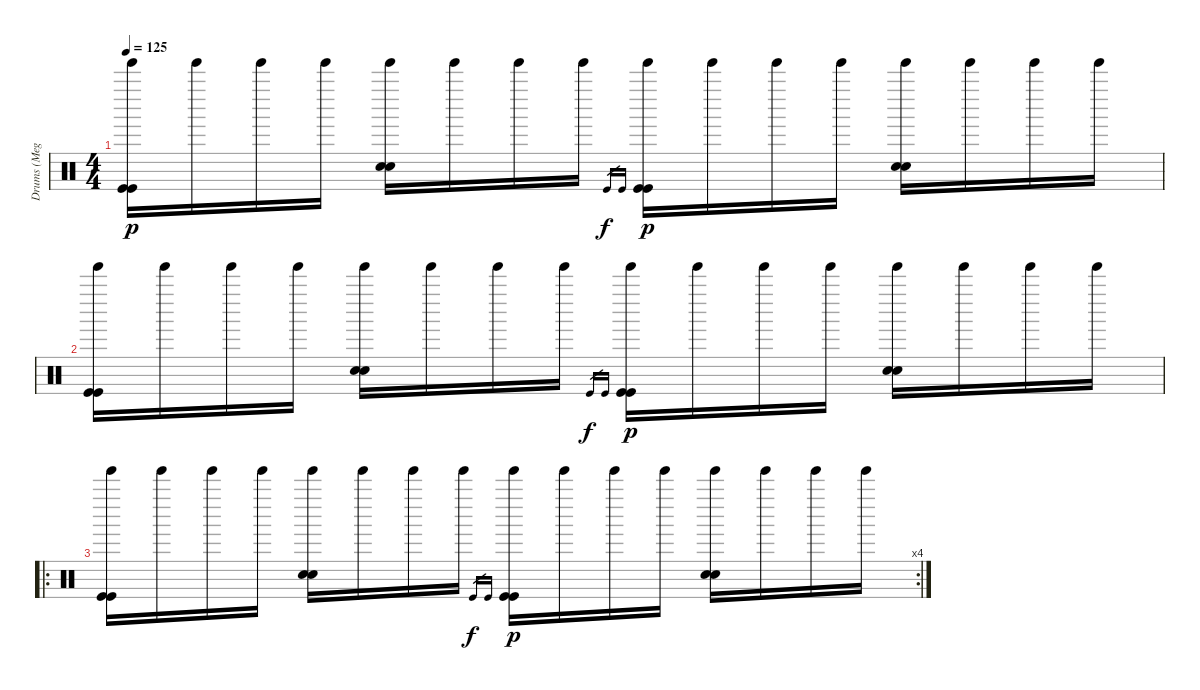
\track ("Drums (Meg)" "Drums (Meg") {instrument percussion}
\staff {score}
\articulation defaults
\ts (4 4)
\tempo 125
\clef neutral
\ks c
("Tinkle Bell (hit)" "Kick (hit)" "Kick (hit)").16{dy p} "Tinkle Bell (hit)".16 "Tinkle Bell (hit)".16 "Tinkle Bell (hit)".16 ("Tinkle Bell (hit)" "Snare (hit) 2" "Snare (hit) 2").16 "Tinkle Bell (hit)".16 "Tinkle Bell (hit)".16 "Tinkle Bell (hit)".16 "Kick (hit)".16{gr dy f} "Kick (hit)".16{gr} ("Tinkle Bell (hit)" "Kick (hit)" "Kick (hit)").16{dy p} "Tinkle Bell (hit)".16 "Tinkle Bell (hit)".16 "Tinkle Bell (hit)".16 ("Tinkle Bell (hit)" "Snare (hit) 2" "Snare (hit) 2").16 "Tinkle Bell (hit)".16 "Tinkle Bell (hit)".16 "Tinkle Bell (hit)".16 |
("Tinkle Bell (hit)" "Kick (hit)" "Kick (hit)").16 "Tinkle Bell (hit)".16 "Tinkle Bell (hit)".16 "Tinkle Bell (hit)".16 ("Tinkle Bell (hit)" "Snare (hit) 2" "Snare (hit) 2").16 "Tinkle Bell (hit)".16 "Tinkle Bell (hit)".16 "Tinkle Bell (hit)".16 "Kick (hit)".16{gr dy f} "Kick (hit)".16{gr} ("Tinkle Bell (hit)" "Kick (hit)" "Kick (hit)").16{dy p} "Tinkle Bell (hit)".16 "Tinkle Bell (hit)".16 "Tinkle Bell (hit)".16 ("Tinkle Bell (hit)" "Snare (hit) 2" "Snare (hit) 2").16 "Tinkle Bell (hit)".16 "Tinkle Bell (hit)".16 "Tinkle Bell (hit)".16 |
\ro
\rc 4
("Tinkle Bell (hit)" "Kick (hit)" "Kick (hit)").16 "Tinkle Bell (hit)".16 "Tinkle Bell (hit)".16 "Tinkle Bell (hit)".16 ("Tinkle Bell (hit)" "Snare (hit) 2" "Snare (hit) 2").16 "Tinkle Bell (hit)".16 "Tinkle Bell (hit)".16 "Tinkle Bell (hit)".16 "Kick (hit)".16{gr dy f} "Kick (hit)".16{gr} ("Tinkle Bell (hit)" "Kick (hit)" "Kick (hit)").16{dy p} "Tinkle Bell (hit)".16 "Tinkle Bell (hit)".16 "Tinkle Bell (hit)".16 ("Tinkle Bell (hit)" "Snare (hit) 2" "Snare (hit) 2").16 "Tinkle Bell (hit)".16 "Tinkle Bell (hit)".16 "Tinkle Bell (hit)".16
